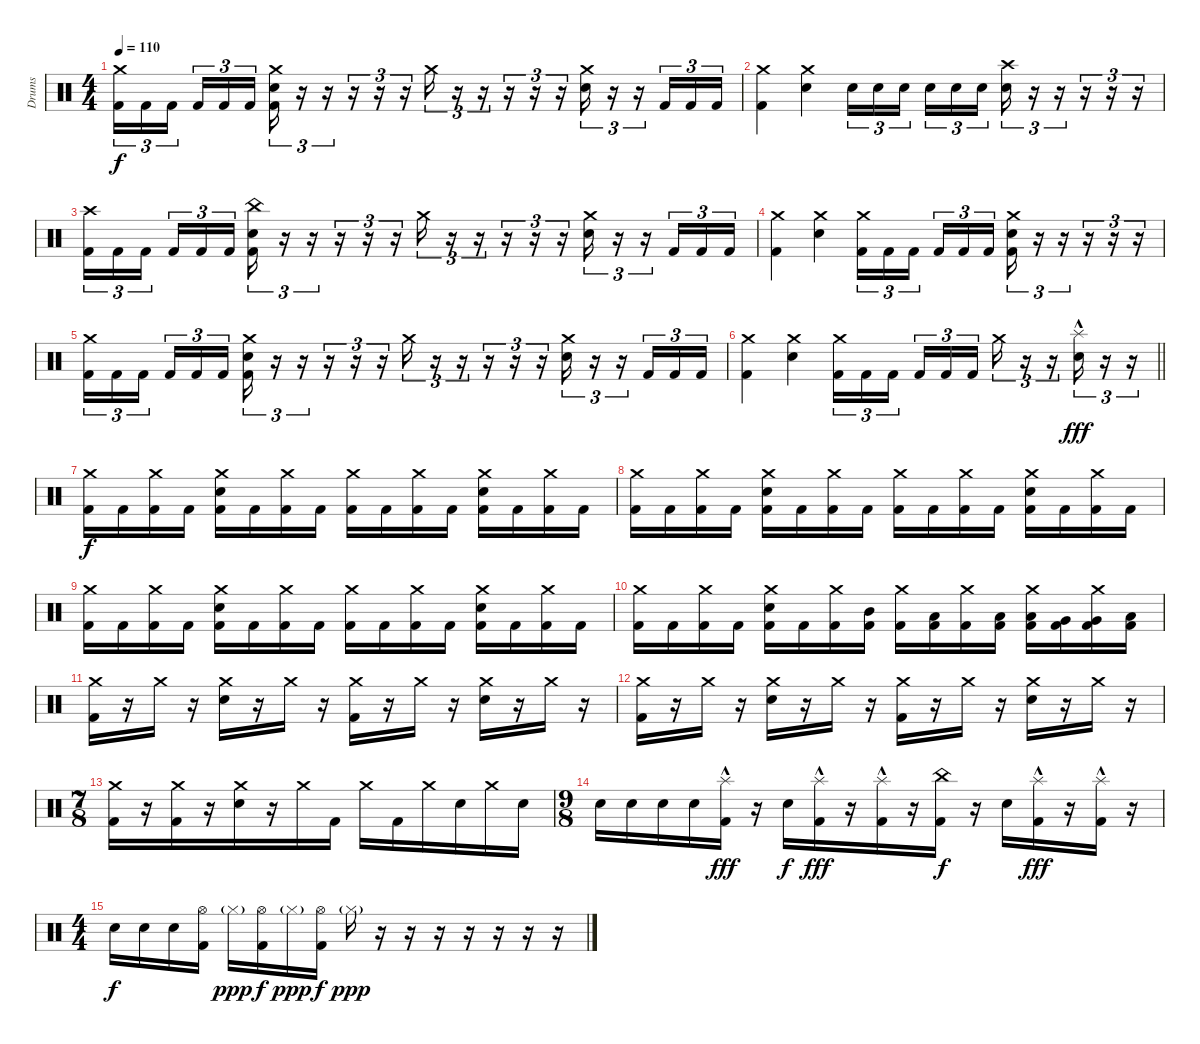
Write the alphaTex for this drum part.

\track ("Drums" "Drums") {instrument percussion}
\staff {score}
\articulation defaults
\ts (4 4)
\tempo 110
\clef neutral
\ks c
("Crash medium (hit)" "Kick (hit) 2").16{tu (3 2) dy f} "Kick (hit) 2".16{tu (3 2)} "Kick (hit) 2".16{tu (3 2) beam splitsecondary} "Kick (hit) 2".16{tu (3 2)} "Kick (hit) 2".16{tu (3 2)} "Kick (hit) 2".16{tu (3 2)} ("Crash medium (hit)" "Electric Snare (hit)" "Kick (hit) 2").16{tu (3 2)} r.16{tu (3 2)} r.16{tu (3 2)} r.16{tu (3 2)} r.16{tu (3 2)} r.16{tu (3 2)} "Crash medium (hit)".16{tu (3 2)} r.16{tu (3 2)} r.16{tu (3 2)} r.16{tu (3 2)} r.16{tu (3 2)} r.16{tu (3 2)} ("Crash medium (hit)" "Electric Snare (hit)").16{tu (3 2)} r.16{tu (3 2)} r.16{tu (3 2)} "Kick (hit) 2".16{tu (3 2)} "Kick (hit) 2".16{tu (3 2)} "Kick (hit) 2".16{tu (3 2)} |
("Crash medium (hit)" "Kick (hit) 2").4 ("Crash medium (hit)" "Electric Snare (hit)").4 "Electric Snare (hit)".16{tu (3 2)} "Electric Snare (hit)".16{tu (3 2)} "Electric Snare (hit)".16{tu (3 2) beam splitsecondary} "Electric Snare (hit)".16{tu (3 2)} "Electric Snare (hit)".16{tu (3 2)} "Electric Snare (hit)".16{tu (3 2)} ("Crash high (hit)" "Electric Snare (hit)").16{tu (3 2)} r.16{tu (3 2)} r.16{tu (3 2)} r.16{tu (3 2)} r.16{tu (3 2)} r.16{tu (3 2)} |
("Crash high (hit)" "Kick (hit) 2").16{tu (3 2)} "Kick (hit) 2".16{tu (3 2)} "Kick (hit) 2".16{tu (3 2) beam splitsecondary} "Kick (hit) 2".16{tu (3 2)} "Kick (hit) 2".16{tu (3 2)} "Kick (hit) 2".16{tu (3 2)} ("China (hit)" "Electric Snare (hit)" "Kick (hit) 2").16{tu (3 2)} r.16{tu (3 2)} r.16{tu (3 2)} r.16{tu (3 2)} r.16{tu (3 2)} r.16{tu (3 2)} "Crash medium (hit)".16{tu (3 2)} r.16{tu (3 2)} r.16{tu (3 2)} r.16{tu (3 2)} r.16{tu (3 2)} r.16{tu (3 2)} ("Crash medium (hit)" "Electric Snare (hit)").16{tu (3 2)} r.16{tu (3 2)} r.16{tu (3 2)} "Kick (hit) 2".16{tu (3 2)} "Kick (hit) 2".16{tu (3 2)} "Kick (hit) 2".16{tu (3 2)} |
("Crash medium (hit)" "Kick (hit) 2").4 ("Crash medium (hit)" "Electric Snare (hit)").4 ("Crash medium (hit)" "Kick (hit) 2").16{tu (3 2)} "Kick (hit) 2".16{tu (3 2)} "Kick (hit) 2".16{tu (3 2) beam splitsecondary} "Kick (hit) 2".16{tu (3 2)} "Kick (hit) 2".16{tu (3 2)} "Kick (hit) 2".16{tu (3 2)} ("Crash medium (hit)" "Electric Snare (hit)" "Kick (hit) 2").16{tu (3 2)} r.16{tu (3 2)} r.16{tu (3 2)} r.16{tu (3 2)} r.16{tu (3 2)} r.16{tu (3 2)} |
("Crash medium (hit)" "Kick (hit) 2").16{tu (3 2)} "Kick (hit) 2".16{tu (3 2)} "Kick (hit) 2".16{tu (3 2) beam splitsecondary} "Kick (hit) 2".16{tu (3 2)} "Kick (hit) 2".16{tu (3 2)} "Kick (hit) 2".16{tu (3 2)} ("Crash medium (hit)" "Electric Snare (hit)" "Kick (hit) 2").16{tu (3 2)} r.16{tu (3 2)} r.16{tu (3 2)} r.16{tu (3 2)} r.16{tu (3 2)} r.16{tu (3 2)} "Crash medium (hit)".16{tu (3 2)} r.16{tu (3 2)} r.16{tu (3 2)} r.16{tu (3 2)} r.16{tu (3 2)} r.16{tu (3 2)} ("Crash medium (hit)" "Electric Snare (hit)").16{tu (3 2)} r.16{tu (3 2)} r.16{tu (3 2)} "Kick (hit) 2".16{tu (3 2)} "Kick (hit) 2".16{tu (3 2)} "Kick (hit) 2".16{tu (3 2)} |
\barLineRight lightlight
("Crash medium (hit)" "Kick (hit) 2").4 ("Crash medium (hit)" "Electric Snare (hit)").4 ("Crash medium (hit)" "Kick (hit) 2").16{tu (3 2)} "Kick (hit) 2".16{tu (3 2)} "Kick (hit) 2".16{tu (3 2) beam splitsecondary} "Kick (hit) 2".16{tu (3 2)} "Kick (hit) 2".16{tu (3 2)} "Kick (hit) 2".16{tu (3 2)} "Crash medium (hit)".16{tu (3 2)} r.16{tu (3 2)} r.16{tu (3 2)} ("Splash (hit)"{hac} "Electric Snare (hit)").16{tu (3 2) dy fff} r.16{tu (3 2)} r.16{tu (3 2)} |
("Crash medium (hit)" "Kick (hit) 2").16{dy f} "Kick (hit) 2".16 ("Crash medium (hit)" "Kick (hit) 2").16 "Kick (hit) 2".16 ("Crash medium (hit)" "Electric Snare (hit)" "Kick (hit) 2").16 "Kick (hit) 2".16 ("Crash medium (hit)" "Kick (hit) 2").16 "Kick (hit) 2".16 ("Crash medium (hit)" "Kick (hit) 2").16 "Kick (hit) 2".16 ("Crash medium (hit)" "Kick (hit) 2").16 "Kick (hit) 2".16 ("Crash medium (hit)" "Electric Snare (hit)" "Kick (hit) 2").16 "Kick (hit) 2".16 ("Crash medium (hit)" "Kick (hit) 2").16 "Kick (hit) 2".16 |
("Crash medium (hit)" "Kick (hit) 2").16 "Kick (hit) 2".16 ("Crash medium (hit)" "Kick (hit) 2").16 "Kick (hit) 2".16 ("Crash medium (hit)" "Electric Snare (hit)" "Kick (hit) 2").16 "Kick (hit) 2".16 ("Crash medium (hit)" "Kick (hit) 2").16 "Kick (hit) 2".16 ("Crash medium (hit)" "Kick (hit) 2").16 "Kick (hit) 2".16 ("Crash medium (hit)" "Kick (hit) 2").16 "Kick (hit) 2".16 ("Crash medium (hit)" "Electric Snare (hit)" "Kick (hit) 2").16 "Kick (hit) 2".16 ("Crash medium (hit)" "Kick (hit) 2").16 "Kick (hit) 2".16 |
("Crash medium (hit)" "Kick (hit) 2").16 "Kick (hit) 2".16 ("Crash medium (hit)" "Kick (hit) 2").16 "Kick (hit) 2".16 ("Crash medium (hit)" "Electric Snare (hit)" "Kick (hit) 2").16 "Kick (hit) 2".16 ("Crash medium (hit)" "Kick (hit) 2").16 "Kick (hit) 2".16 ("Crash medium (hit)" "Kick (hit) 2").16 "Kick (hit) 2".16 ("Crash medium (hit)" "Kick (hit) 2").16 "Kick (hit) 2".16 ("Crash medium (hit)" "Electric Snare (hit)" "Kick (hit) 2").16 "Kick (hit) 2".16 ("Crash medium (hit)" "Kick (hit) 2").16 "Kick (hit) 2".16 |
("Crash medium (hit)" "Kick (hit) 2").16 "Kick (hit) 2".16 ("Crash medium (hit)" "Kick (hit) 2").16 "Kick (hit) 2".16 ("Crash medium (hit)" "Electric Snare (hit)" "Kick (hit) 2").16 "Kick (hit) 2".16 ("Crash medium (hit)" "Kick (hit) 2").16 ("Mid Tom (hit)" "Kick (hit) 2").16 ("Crash medium (hit)" "Kick (hit) 2").16 ("Low Tom (hit)" "Kick (hit) 2").16 ("Crash medium (hit)" "Kick (hit) 2").16 ("Low Tom (hit)" "Kick (hit) 2").16 ("Crash medium (hit)" "Low Tom (hit)" "Kick (hit) 2").16 ("Very Low Tom (hit)" "Kick (hit) 2").16 ("Crash medium (hit)" "Very Low Tom (hit)" "Kick (hit) 2").16 ("Low Floor Tom (hit)" "Kick (hit) 2").16 |
("Crash medium (hit)" "Kick (hit) 2").16 r.16 "Crash medium (hit)".16 r.16 ("Crash medium (hit)" "Electric Snare (hit)").16 r.16 "Crash medium (hit)".16 r.16 ("Crash medium (hit)" "Kick (hit) 2").16 r.16 "Crash medium (hit)".16 r.16 ("Crash medium (hit)" "Electric Snare (hit)").16 r.16 "Crash medium (hit)".16 r.16 |
("Crash medium (hit)" "Kick (hit) 2").16 r.16 "Crash medium (hit)".16 r.16 ("Crash medium (hit)" "Electric Snare (hit)").16 r.16 "Crash medium (hit)".16 r.16 ("Crash medium (hit)" "Kick (hit) 2").16 r.16 "Crash medium (hit)".16 r.16 ("Crash medium (hit)" "Electric Snare (hit)").16 r.16 "Crash medium (hit)".16 r.16 |
\ts (7 8)
("Crash medium (hit)" "Kick (hit) 2").16 r.16 ("Crash medium (hit)" "Kick (hit) 2").16 r.16 ("Crash medium (hit)" "Electric Snare (hit)").16 r.16 "Crash medium (hit)".16 "Kick (hit) 2".16 "Crash medium (hit)".16 "Kick (hit) 2".16 "Crash medium (hit)".16 "Electric Snare (hit)".16 "Crash medium (hit)".16 "Electric Snare (hit)".16 |
\ts (9 8)
"Electric Snare (hit)".16 "Electric Snare (hit)".16 "Electric Snare (hit)".16 "Electric Snare (hit)".16 ("Splash (hit)"{hac} "Kick (hit) 2").16{dy fff} r.16 "Electric Snare (hit)".16{dy f} ("Splash (hit)"{hac} "Kick (hit) 2").16{dy fff} r.16 ("Splash (hit)"{hac} "Kick (hit) 2").16 r.16 ("China (hit)" "Kick (hit) 2").16{dy f} r.16 "Electric Snare (hit)".16 ("Splash (hit)"{hac} "Kick (hit) 2").16{dy fff} r.16 ("Splash (hit)"{hac} "Kick (hit) 2").16 r.16 |
\ts (4 4)
"Electric Snare (hit)".16{dy f} "Electric Snare (hit)".16 "Electric Snare (hit)".16 ("Hi-Hat (open)" "Kick (hit) 2").16 "Hi-Hat (closed)"{g}.16{dy ppp} ("Hi-Hat (open)" "Kick (hit) 2").16{dy f} "Hi-Hat (closed)"{g}.16{dy ppp} ("Hi-Hat (open)" "Kick (hit) 2").16{dy f} "Hi-Hat (closed)"{g}.16{dy ppp} r.16 r.16 r.16 r.16 r.16 r.16 r.16
